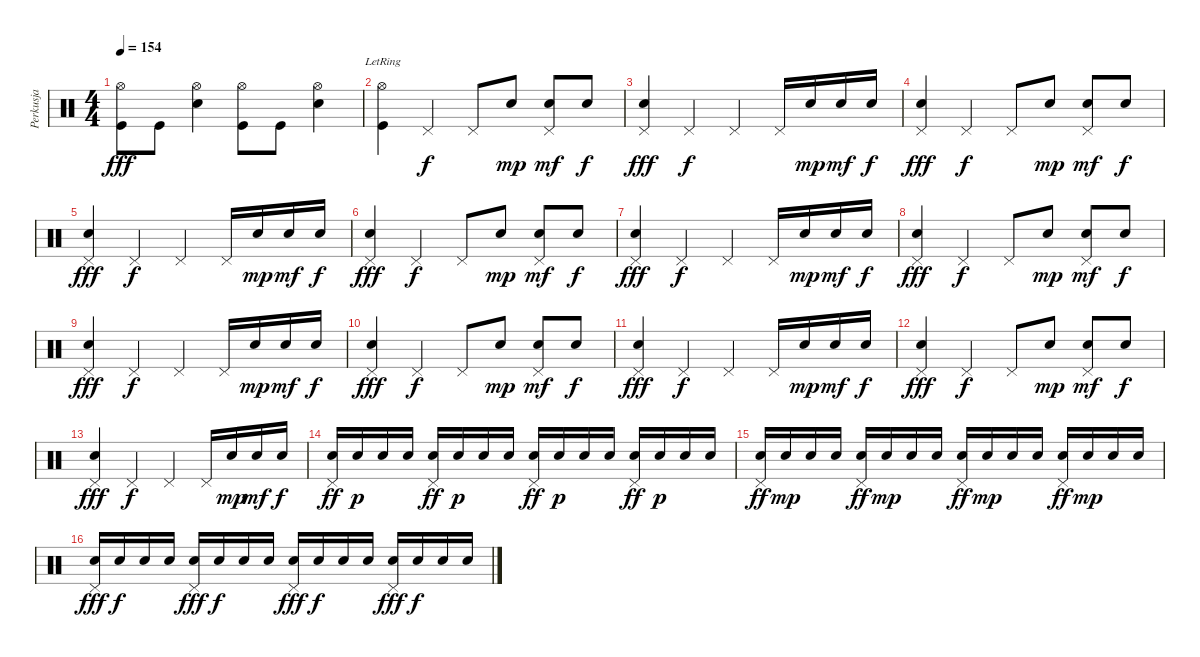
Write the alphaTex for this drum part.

\track ("Perkusja" "Perkusja") {instrument percussion}
\staff {score}
\articulation defaults
\ts (4 4)
\tempo 154
\clef neutral
\ks c
("Hi-Hat (open)" "Kick (hit)").8{dy fff} "Kick (hit)".8 ("Hi-Hat (open)" "Snare (hit) 2").4 ("Hi-Hat (open)" "Kick (hit)").8 "Kick (hit)".8 ("Hi-Hat (open)" "Snare (hit) 2").4 |
("Hi-Hat (open)"{lr} "Kick (hit)").4 "Pedal Hi-Hat (hit)".4{dy f} "Pedal Hi-Hat (hit)".8 "Snare (hit) 2".8{dy mp} ("Pedal Hi-Hat (hit)" "Snare (hit) 2").8{dy mf} "Snare (hit) 2".8{dy f} |
("Pedal Hi-Hat (hit)" "Snare (hit) 2").4{dy fff} "Pedal Hi-Hat (hit)".4{dy f} "Pedal Hi-Hat (hit)".4 "Pedal Hi-Hat (hit)".16 "Snare (hit) 2".16{dy mp} "Snare (hit) 2".16{dy mf} "Snare (hit) 2".16{dy f} |
("Pedal Hi-Hat (hit)" "Snare (hit) 2").4{dy fff} "Pedal Hi-Hat (hit)".4{dy f} "Pedal Hi-Hat (hit)".8 "Snare (hit) 2".8{dy mp} ("Pedal Hi-Hat (hit)" "Snare (hit) 2").8{dy mf} "Snare (hit) 2".8{dy f} |
("Pedal Hi-Hat (hit)" "Snare (hit) 2").4{dy fff} "Pedal Hi-Hat (hit)".4{dy f} "Pedal Hi-Hat (hit)".4 "Pedal Hi-Hat (hit)".16 "Snare (hit) 2".16{dy mp} "Snare (hit) 2".16{dy mf} "Snare (hit) 2".16{dy f} |
("Pedal Hi-Hat (hit)" "Snare (hit) 2").4{dy fff} "Pedal Hi-Hat (hit)".4{dy f} "Pedal Hi-Hat (hit)".8 "Snare (hit) 2".8{dy mp} ("Pedal Hi-Hat (hit)" "Snare (hit) 2").8{dy mf} "Snare (hit) 2".8{dy f} |
("Pedal Hi-Hat (hit)" "Snare (hit) 2").4{dy fff} "Pedal Hi-Hat (hit)".4{dy f} "Pedal Hi-Hat (hit)".4 "Pedal Hi-Hat (hit)".16 "Snare (hit) 2".16{dy mp} "Snare (hit) 2".16{dy mf} "Snare (hit) 2".16{dy f} |
("Pedal Hi-Hat (hit)" "Snare (hit) 2").4{dy fff} "Pedal Hi-Hat (hit)".4{dy f} "Pedal Hi-Hat (hit)".8 "Snare (hit) 2".8{dy mp} ("Pedal Hi-Hat (hit)" "Snare (hit) 2").8{dy mf} "Snare (hit) 2".8{dy f} |
("Pedal Hi-Hat (hit)" "Snare (hit) 2").4{dy fff} "Pedal Hi-Hat (hit)".4{dy f} "Pedal Hi-Hat (hit)".4 "Pedal Hi-Hat (hit)".16 "Snare (hit) 2".16{dy mp} "Snare (hit) 2".16{dy mf} "Snare (hit) 2".16{dy f} |
("Pedal Hi-Hat (hit)" "Snare (hit) 2").4{dy fff} "Pedal Hi-Hat (hit)".4{dy f} "Pedal Hi-Hat (hit)".8 "Snare (hit) 2".8{dy mp} ("Pedal Hi-Hat (hit)" "Snare (hit) 2").8{dy mf} "Snare (hit) 2".8{dy f} |
("Pedal Hi-Hat (hit)" "Snare (hit) 2").4{dy fff} "Pedal Hi-Hat (hit)".4{dy f} "Pedal Hi-Hat (hit)".4 "Pedal Hi-Hat (hit)".16 "Snare (hit) 2".16{dy mp} "Snare (hit) 2".16{dy mf} "Snare (hit) 2".16{dy f} |
("Pedal Hi-Hat (hit)" "Snare (hit) 2").4{dy fff} "Pedal Hi-Hat (hit)".4{dy f} "Pedal Hi-Hat (hit)".8 "Snare (hit) 2".8{dy mp} ("Pedal Hi-Hat (hit)" "Snare (hit) 2").8{dy mf} "Snare (hit) 2".8{dy f} |
("Pedal Hi-Hat (hit)" "Snare (hit) 2").4{dy fff} "Pedal Hi-Hat (hit)".4{dy f} "Pedal Hi-Hat (hit)".4 "Pedal Hi-Hat (hit)".16 "Snare (hit) 2".16{dy mp} "Snare (hit) 2".16{dy mf} "Snare (hit) 2".16{dy f} |
("Pedal Hi-Hat (hit)" "Snare (hit) 2").16{dy ff} "Snare (hit) 2".16{dy p} "Snare (hit) 2".16 "Snare (hit) 2".16 ("Pedal Hi-Hat (hit)" "Snare (hit) 2").16{dy ff} "Snare (hit) 2".16{dy p} "Snare (hit) 2".16 "Snare (hit) 2".16 ("Pedal Hi-Hat (hit)" "Snare (hit) 2").16{dy ff} "Snare (hit) 2".16{dy p} "Snare (hit) 2".16 "Snare (hit) 2".16 ("Pedal Hi-Hat (hit)" "Snare (hit) 2").16{dy ff} "Snare (hit) 2".16{dy p} "Snare (hit) 2".16 "Snare (hit) 2".16 |
("Pedal Hi-Hat (hit)" "Snare (hit) 2").16{dy ff} "Snare (hit) 2".16{dy mp} "Snare (hit) 2".16 "Snare (hit) 2".16 ("Pedal Hi-Hat (hit)" "Snare (hit) 2").16{dy ff} "Snare (hit) 2".16{dy mp} "Snare (hit) 2".16 "Snare (hit) 2".16 ("Pedal Hi-Hat (hit)" "Snare (hit) 2").16{dy ff} "Snare (hit) 2".16{dy mp} "Snare (hit) 2".16 "Snare (hit) 2".16 ("Pedal Hi-Hat (hit)" "Snare (hit) 2").16{dy ff} "Snare (hit) 2".16{dy mp} "Snare (hit) 2".16 "Snare (hit) 2".16 |
("Pedal Hi-Hat (hit)" "Snare (hit) 2").16{dy fff} "Snare (hit) 2".16{dy f} "Snare (hit) 2".16 "Snare (hit) 2".16 ("Pedal Hi-Hat (hit)" "Snare (hit) 2").16{dy fff} "Snare (hit) 2".16{dy f} "Snare (hit) 2".16 "Snare (hit) 2".16 ("Pedal Hi-Hat (hit)" "Snare (hit) 2").16{dy fff} "Snare (hit) 2".16{dy f} "Snare (hit) 2".16 "Snare (hit) 2".16 ("Pedal Hi-Hat (hit)" "Snare (hit) 2").16{dy fff} "Snare (hit) 2".16{dy f} "Snare (hit) 2".16 "Snare (hit) 2".16
